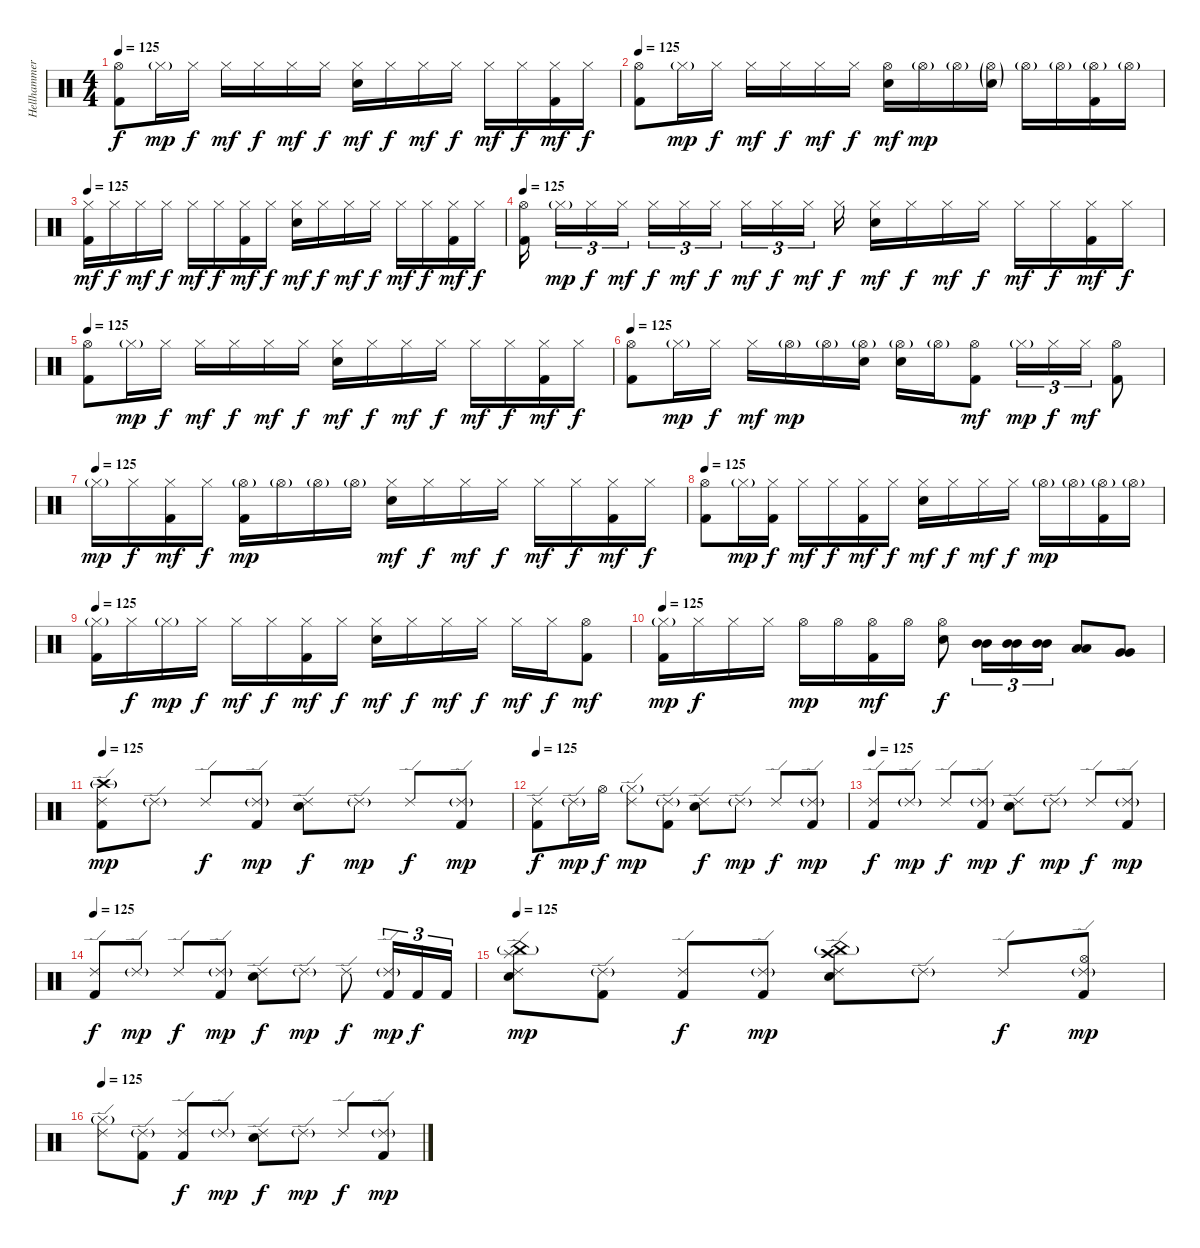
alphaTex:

\track ("Hellhammer" "Hellhammer") {instrument percussion}
\staff {score}
\articulation defaults
\ts (4 4)
\tempo 125
\clef neutral
\ks c
("Kick (hit) 2" "Hi-Hat (open)").8{dy f} "Hi-Hat (closed)"{g}.16{dy mp} "Hi-Hat (closed)".16{dy f} "Hi-Hat (closed)".16{dy mf} "Hi-Hat (closed)".16{dy f} "Hi-Hat (closed)".16{dy mf} "Hi-Hat (closed)".16{dy f} ("Electric Snare (hit)" "Hi-Hat (closed)").16{dy mf} "Hi-Hat (closed)".16{dy f} "Hi-Hat (closed)".16{dy mf} "Hi-Hat (closed)".16{dy f} "Hi-Hat (closed)".16{dy mf} "Hi-Hat (closed)".16{dy f} ("Kick (hit) 2" "Hi-Hat (closed)").16{dy mf} "Hi-Hat (closed)".16{dy f} |
\tempo 125
("Kick (hit) 2" "Hi-Hat (open)").8 "Hi-Hat (closed)"{g}.16{dy mp} "Hi-Hat (closed)".16{dy f} "Hi-Hat (closed)".16{dy mf} "Hi-Hat (closed)".16{dy f} "Hi-Hat (closed)".16{dy mf} "Hi-Hat (closed)".16{dy f} ("Electric Snare (hit)" "Hi-Hat (open)").16{dy mf} "Hi-Hat (open)"{g}.16{dy mp} "Hi-Hat (open)"{g}.16 ("Electric Snare (hit)"{g} "Hi-Hat (open)"{g}).16 "Hi-Hat (open)"{g}.16 "Hi-Hat (open)"{g}.16 ("Kick (hit) 2" "Hi-Hat (open)"{g}).16 "Hi-Hat (open)"{g}.16 |
\tempo 125
("Kick (hit) 2" "Hi-Hat (closed)").16{dy mf} "Hi-Hat (closed)".16{dy f} "Hi-Hat (closed)".16{dy mf} "Hi-Hat (closed)".16{dy f} "Hi-Hat (closed)".16{dy mf} "Hi-Hat (closed)".16{dy f} ("Kick (hit) 2" "Hi-Hat (closed)").16{dy mf} "Hi-Hat (closed)".16{dy f} ("Electric Snare (hit)" "Hi-Hat (closed)").16{dy mf} "Hi-Hat (closed)".16{dy f} "Hi-Hat (closed)".16{dy mf} "Hi-Hat (closed)".16{dy f} "Hi-Hat (closed)".16{dy mf} "Hi-Hat (closed)".16{dy f} ("Kick (hit) 2" "Hi-Hat (closed)").16{dy mf} "Hi-Hat (closed)".16{dy f} |
\tempo 125
("Kick (hit) 2" "Hi-Hat (open)").16 "Hi-Hat (closed)"{g}.16{tu (3 2) dy mp} "Hi-Hat (closed)".16{tu (3 2) dy f} "Hi-Hat (closed)".16{tu (3 2) dy mf} "Hi-Hat (closed)".16{tu (3 2) dy f} "Hi-Hat (closed)".16{tu (3 2) dy mf} "Hi-Hat (closed)".16{tu (3 2) dy f} "Hi-Hat (closed)".16{tu (3 2) dy mf} "Hi-Hat (closed)".16{tu (3 2) dy f} "Hi-Hat (closed)".16{tu (3 2) dy mf} "Hi-Hat (closed)".16{dy f} ("Electric Snare (hit)" "Hi-Hat (closed)").16{dy mf} "Hi-Hat (closed)".16{dy f} "Hi-Hat (closed)".16{dy mf} "Hi-Hat (closed)".16{dy f} "Hi-Hat (closed)".16{dy mf} "Hi-Hat (closed)".16{dy f} ("Kick (hit) 2" "Hi-Hat (closed)").16{dy mf} "Hi-Hat (closed)".16{dy f} |
\tempo 125
("Kick (hit) 2" "Hi-Hat (open)").8 "Hi-Hat (closed)"{g}.16{dy mp} "Hi-Hat (closed)".16{dy f} "Hi-Hat (closed)".16{dy mf} "Hi-Hat (closed)".16{dy f} "Hi-Hat (closed)".16{dy mf} "Hi-Hat (closed)".16{dy f} ("Electric Snare (hit)" "Hi-Hat (closed)").16{dy mf} "Hi-Hat (closed)".16{dy f} "Hi-Hat (closed)".16{dy mf} "Hi-Hat (closed)".16{dy f} "Hi-Hat (closed)".16{dy mf} "Hi-Hat (closed)".16{dy f} ("Kick (hit) 2" "Hi-Hat (closed)").16{dy mf} "Hi-Hat (closed)".16{dy f} |
\tempo 125
("Kick (hit) 2" "Hi-Hat (open)").8 "Hi-Hat (closed)"{g}.16{dy mp} "Hi-Hat (closed)".16{dy f} "Hi-Hat (closed)".16{dy mf} "Hi-Hat (open)"{g}.16{dy mp} "Hi-Hat (open)"{g}.16 ("Electric Snare (hit)" "Hi-Hat (open)"{g}).16 ("Electric Snare (hit)" "Hi-Hat (open)"{g}).16 "Hi-Hat (open)"{g}.16 ("Kick (hit) 2" "Hi-Hat (open)").8{dy mf} "Hi-Hat (closed)"{g}.16{tu (3 2) dy mp} "Hi-Hat (closed)".16{tu (3 2) dy f} "Hi-Hat (closed)".16{tu (3 2) dy mf} ("Kick (hit) 2" "Hi-Hat (open)").8 |
\tempo (125)
"Hi-Hat (closed)"{g}.16{dy mp} "Hi-Hat (closed)".16{dy f} ("Kick (hit) 2" "Hi-Hat (closed)").16{dy mf} "Hi-Hat (closed)".16{dy f} ("Kick (hit) 2" "Hi-Hat (open)"{g}).16{dy mp} "Hi-Hat (open)"{g}.16 "Hi-Hat (open)"{g}.16 "Hi-Hat (open)"{g}.16 ("Electric Snare (hit)" "Hi-Hat (closed)").16{dy mf} "Hi-Hat (closed)".16{dy f} "Hi-Hat (closed)".16{dy mf} "Hi-Hat (closed)".16{dy f} "Hi-Hat (closed)".16{dy mf} "Hi-Hat (closed)".16{dy f} ("Kick (hit) 2" "Hi-Hat (closed)").16{dy mf} "Hi-Hat (closed)".16{dy f} |
\tempo 125
("Kick (hit) 2" "Hi-Hat (open)").8 "Hi-Hat (closed)"{g}.16{dy mp} ("Kick (hit) 2" "Hi-Hat (closed)").16{dy f} "Hi-Hat (closed)".16{dy mf} "Hi-Hat (closed)".16{dy f} ("Kick (hit) 2" "Hi-Hat (closed)").16{dy mf} "Hi-Hat (closed)".16{dy f} ("Electric Snare (hit)" "Hi-Hat (closed)").16{dy mf} "Hi-Hat (closed)".16{dy f} "Hi-Hat (closed)".16{dy mf} "Hi-Hat (closed)".16{dy f} "Hi-Hat (open)"{g}.16{dy mp} "Hi-Hat (open)"{g}.16 ("Kick (hit) 2" "Hi-Hat (open)"{g}).16 "Hi-Hat (open)"{g}.16 |
\tempo 125
("Kick (hit) 2" "Hi-Hat (closed)"{g}).16 "Hi-Hat (closed)".16{dy f} "Hi-Hat (closed)"{g}.16{dy mp} "Hi-Hat (closed)".16{dy f} "Hi-Hat (closed)".16{dy mf} "Hi-Hat (closed)".16{dy f} ("Kick (hit) 2" "Hi-Hat (closed)").16{dy mf} "Hi-Hat (closed)".16{dy f} ("Electric Snare (hit)" "Hi-Hat (closed)").16{dy mf} "Hi-Hat (closed)".16{dy f} "Hi-Hat (closed)".16{dy mf} "Hi-Hat (closed)".16{dy f} "Hi-Hat (closed)".16{dy mf} "Hi-Hat (closed)".16{dy f} ("Kick (hit) 2" "Hi-Hat (open)").8{dy mf} |
\tempo 125
("Kick (hit) 2" "Hi-Hat (closed)"{g}).16{dy mp} "Hi-Hat (closed)".16{dy f} "Hi-Hat (closed)".16 "Hi-Hat (closed)".16 "Hi-Hat (open)".16{dy mp} "Hi-Hat (open)".16 ("Kick (hit) 2" "Hi-Hat (open)").16{dy mf} "Hi-Hat (open)".16 ("Electric Snare (hit)" "Hi-Hat (open)").8{dy f} ("Mid Tom (hit)" "Mid Tom (hit)").16{tu (3 2)} ("Mid Tom (hit)" "Mid Tom (hit)").16{tu (3 2)} ("Mid Tom (hit)" "Mid Tom (hit)").16{tu (3 2)} ("Low Tom (hit)" "Low Tom (hit)").8 ("Very Low Tom (hit)" "Very Low Tom (hit)").8 |
\tempo 125
("Kick (hit) 2" "Ride (edge) 2" "Crash high (hit)"{g}).8{dy mp} "Ride (edge) 2"{g}.8 "Ride (edge) 2".8{dy f} ("Kick (hit) 2" "Ride (edge) 2"{g}).8{dy mp} ("Electric Snare (hit)" "Ride (edge) 2").8{dy f} "Ride (edge) 2"{g}.8{dy mp} "Ride (edge) 2".8{dy f} ("Kick (hit) 2" "Ride (edge) 2"{g}).8{dy mp} |
\tempo 125
("Kick (hit) 2" "Ride (edge) 2").8{dy f} "Ride (edge) 2"{g}.16{dy mp} "Hi-Hat (open)".16{dy f} ("Ride (edge) 2" "Hi-Hat (closed)"{g}).8{dy mp} ("Kick (hit) 2" "Ride (edge) 2"{g}).8 ("Electric Snare (hit)" "Ride (edge) 2").8{dy f} "Ride (edge) 2"{g}.8{dy mp} "Ride (edge) 2".8{dy f} ("Kick (hit) 2" "Ride (edge) 2"{g}).8{dy mp} |
\tempo 125
("Kick (hit) 2" "Ride (edge) 2").8{dy f} "Ride (edge) 2"{g}.8{dy mp} "Ride (edge) 2".8{dy f} ("Kick (hit) 2" "Ride (edge) 2"{g}).8{dy mp} ("Electric Snare (hit)" "Ride (edge) 2").8{dy f} "Ride (edge) 2"{g}.8{dy mp} "Ride (edge) 2".8{dy f} ("Kick (hit) 2" "Ride (edge) 2"{g}).8{dy mp} |
\tempo 125
("Kick (hit) 2" "Ride (edge) 2").8{dy f} "Ride (edge) 2"{g}.8{dy mp} "Ride (edge) 2".8{dy f} ("Kick (hit) 2" "Ride (edge) 2"{g}).8{dy mp} ("Electric Snare (hit)" "Ride (edge) 2").8{dy f} "Ride (edge) 2"{g}.8{dy mp} "Ride (edge) 2".8{dy f} ("Kick (hit) 2" "Ride (edge) 2"{g}).16{tu (3 2) dy mp} "Kick (hit) 2".16{tu (3 2) dy f} "Kick (hit) 2".16{tu (3 2)} |
\tempo 125
("Electric Snare (hit)" "Ride (edge) 2" "Splash (hit)" "China (hit)"{g}).8{dy mp} ("Kick (hit) 2" "Ride (edge) 2"{g}).8 ("Kick (hit) 2" "Ride (edge) 2").8{dy f} ("Kick (hit) 2" "Ride (edge) 2"{g}).8{dy mp} ("Electric Snare (hit)" "Ride (edge) 2" "Crash high (hit)" "China (hit)"{g}).8 "Ride (edge) 2"{g}.8 "Ride (edge) 2".8{dy f} ("Kick (hit) 2" "Ride (edge) 2"{g} "Hi-Hat (open)").8{dy mp} |
\tempo 125
("Ride (edge) 2" "Hi-Hat (closed)"{g}).8 ("Kick (hit) 2" "Ride (edge) 2"{g}).8 ("Kick (hit) 2" "Ride (edge) 2").8{dy f} "Ride (edge) 2"{g}.8{dy mp} ("Electric Snare (hit)" "Ride (edge) 2").8{dy f} "Ride (edge) 2"{g}.8{dy mp} "Ride (edge) 2".8{dy f} ("Kick (hit) 2" "Ride (edge) 2"{g}).8{dy mp}
